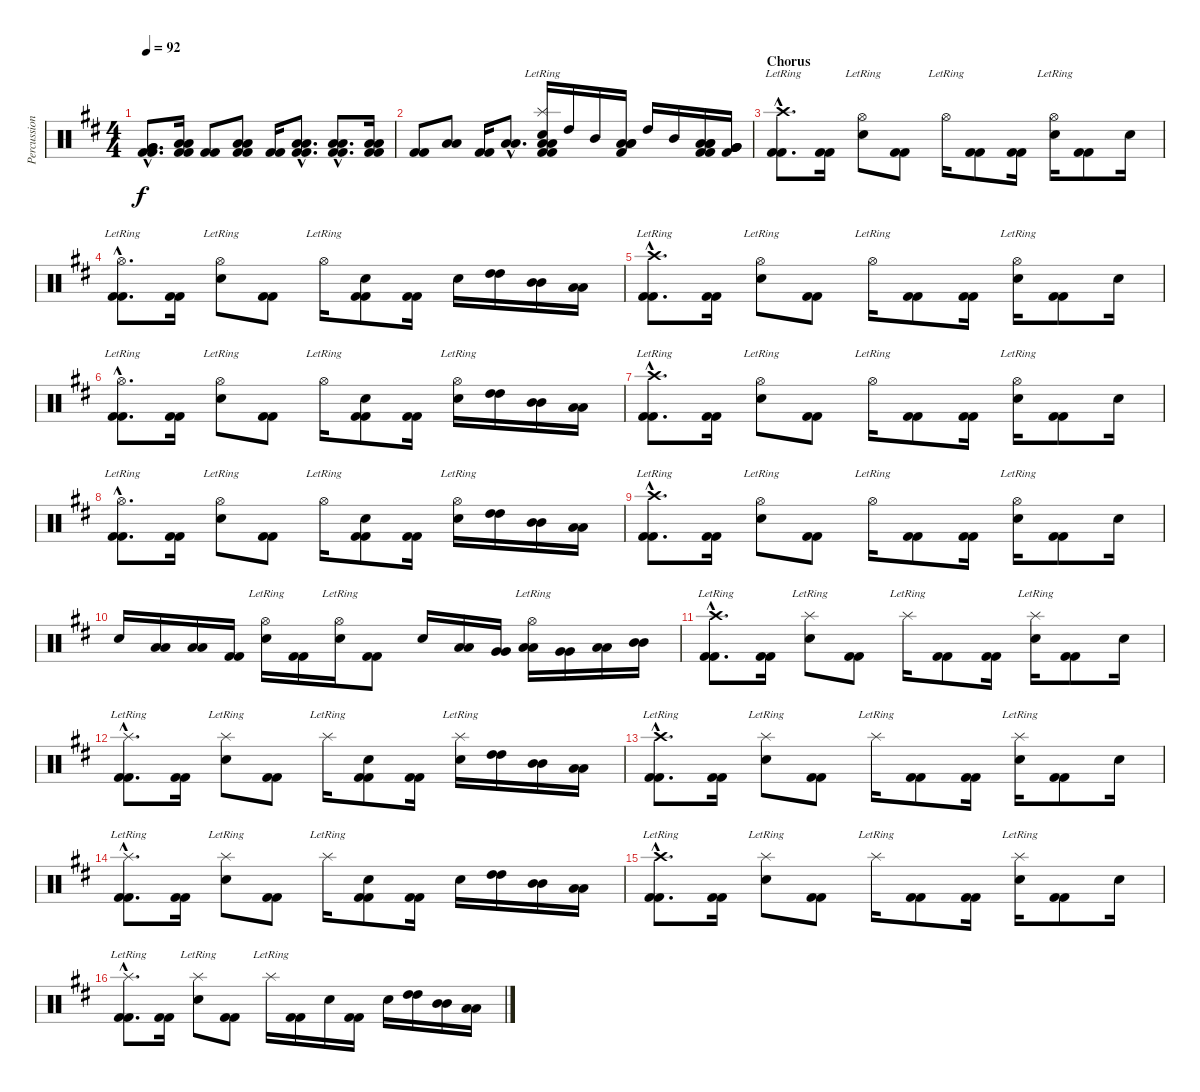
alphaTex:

\track ("Percussion" "Percussion") {instrument percussion}
\staff {score}
\articulation defaults
\ts (4 4)
\tempo 92
\clef neutral
\ks d
("Kick (hit) 2"{hac} "Very Low Tom (hit)"{hac} "Very Low Tom (hit)"{hac} "Kick (hit) 2"{hac}).8{d dy f} ("Kick (hit) 2" "Low Tom (hit)" "Low Tom (hit)" "Kick (hit) 2").16 ("Kick (hit) 2" "Kick (hit) 2").8 ("Kick (hit) 2" "Low Tom (hit)" "Low Tom (hit)" "Kick (hit) 2").8 ("Kick (hit) 2" "Kick (hit) 2").16 ("Kick (hit) 2"{hac} "Low Tom (hit)"{hac} "Low Tom (hit)"{hac} "Kick (hit) 2"{hac}).8{d} ("Kick (hit) 2"{hac} "Low Tom (hit)"{hac} "Low Tom (hit)"{hac} "Kick (hit) 2"{hac}).8{d} ("Kick (hit) 2" "Low Tom (hit)" "Low Tom (hit)" "Kick (hit) 2").16 |
("Kick (hit) 2" "Kick (hit) 2").8 ("Low Tom (hit)" "Low Tom (hit)").8 ("Kick (hit) 2" "Kick (hit) 2").16 ("Low Tom (hit)"{hac} "Low Tom (hit)"{hac}).8{d} ("Kick (hit) 2" "Splash (hit)"{lr} "Snare (hit) 2" "Low Tom (hit)" "Low Tom (hit)" "Kick (hit) 2").16 "High Tom (hit)".16 "Mid Tom (hit)".16 ("Low Tom (hit)" "Low Tom (hit)" "Low Tom (hit)" "Kick (hit) 2").16 "High Tom (hit)".16 "Mid Tom (hit)".16 ("Kick (hit) 2" "Low Tom (hit)" "Low Tom (hit)" "Low Tom (hit)" "Kick (hit) 2").16 ("Very Low Tom (hit)" "Very Low Tom (hit)" "Very Low Tom (hit)" "Kick (hit) 2").16 |
\section ("" "Chorus")
("Crash high (hit)"{hac lr} "Kick (hit) 2"{hac} "Kick (hit) 2"{hac}).8{d} ("Kick (hit) 2" "Kick (hit) 2").16 ("Hi-Hat (open)"{lr} "Snare (hit) 2").8 ("Kick (hit) 2" "Kick (hit) 2").8 "Hi-Hat (open)"{lr}.16 ("Kick (hit) 2" "Kick (hit) 2").8 ("Kick (hit) 2" "Kick (hit) 2").16 ("Hi-Hat (open)"{lr} "Snare (hit) 2").16 ("Kick (hit) 2" "Kick (hit) 2").8 "Snare (hit) 2".16 |
("Hi-Hat (open)"{hac lr} "Kick (hit) 2"{hac} "Kick (hit) 2"{hac}).8{d} ("Kick (hit) 2" "Kick (hit) 2").16 ("Hi-Hat (open)"{lr} "Snare (hit) 2").8 ("Kick (hit) 2" "Kick (hit) 2").8 "Hi-Hat (open)"{lr}.16 ("Snare (hit) 2" "Kick (hit) 2" "Kick (hit) 2").8 ("Kick (hit) 2" "Kick (hit) 2").16 "Snare (hit) 2".16 ("High Tom (hit)" "High Tom (hit)").16 ("Mid Tom (hit)" "Mid Tom (hit)").16 ("Low Tom (hit)" "Low Tom (hit)").16 |
("Crash high (hit)"{hac lr} "Kick (hit) 2"{hac} "Kick (hit) 2"{hac}).8{d} ("Kick (hit) 2" "Kick (hit) 2").16 ("Hi-Hat (open)"{lr} "Snare (hit) 2").8 ("Kick (hit) 2" "Kick (hit) 2").8 "Hi-Hat (open)"{lr}.16 ("Kick (hit) 2" "Kick (hit) 2").8 ("Kick (hit) 2" "Kick (hit) 2").16 ("Hi-Hat (open)"{lr} "Snare (hit) 2").16 ("Kick (hit) 2" "Kick (hit) 2").8 "Snare (hit) 2".16 |
("Hi-Hat (open)"{hac lr} "Kick (hit) 2"{hac} "Kick (hit) 2"{hac}).8{d} ("Kick (hit) 2" "Kick (hit) 2").16 ("Hi-Hat (open)"{lr} "Snare (hit) 2").8 ("Kick (hit) 2" "Kick (hit) 2").8 "Hi-Hat (open)"{lr}.16 ("Snare (hit) 2" "Kick (hit) 2" "Kick (hit) 2").8 ("Kick (hit) 2" "Kick (hit) 2").16 ("Hi-Hat (open)"{lr} "Snare (hit) 2").16 ("High Tom (hit)" "High Tom (hit)").16 ("Mid Tom (hit)" "Mid Tom (hit)").16 ("Low Tom (hit)" "Low Tom (hit)").16 |
("Crash high (hit)"{hac lr} "Kick (hit) 2"{hac} "Kick (hit) 2"{hac}).8{d} ("Kick (hit) 2" "Kick (hit) 2").16 ("Hi-Hat (open)"{lr} "Snare (hit) 2").8 ("Kick (hit) 2" "Kick (hit) 2").8 "Hi-Hat (open)"{lr}.16 ("Kick (hit) 2" "Kick (hit) 2").8 ("Kick (hit) 2" "Kick (hit) 2").16 ("Hi-Hat (open)"{lr} "Snare (hit) 2").16 ("Kick (hit) 2" "Kick (hit) 2").8 "Snare (hit) 2".16 |
("Hi-Hat (open)"{hac lr} "Kick (hit) 2"{hac} "Kick (hit) 2"{hac}).8{d} ("Kick (hit) 2" "Kick (hit) 2").16 ("Hi-Hat (open)"{lr} "Snare (hit) 2").8 ("Kick (hit) 2" "Kick (hit) 2").8 "Hi-Hat (open)"{lr}.16 ("Snare (hit) 2" "Kick (hit) 2" "Kick (hit) 2").8 ("Kick (hit) 2" "Kick (hit) 2").16 ("Hi-Hat (open)"{lr} "Snare (hit) 2").16 ("High Tom (hit)" "High Tom (hit)").16 ("Mid Tom (hit)" "Mid Tom (hit)").16 ("Low Tom (hit)" "Low Tom (hit)").16 |
("Crash high (hit)"{hac lr} "Kick (hit) 2"{hac} "Kick (hit) 2"{hac}).8{d} ("Kick (hit) 2" "Kick (hit) 2").16 ("Hi-Hat (open)"{lr} "Snare (hit) 2").8 ("Kick (hit) 2" "Kick (hit) 2").8 "Hi-Hat (open)"{lr}.16 ("Kick (hit) 2" "Kick (hit) 2").8 ("Kick (hit) 2" "Kick (hit) 2").16 ("Hi-Hat (open)"{lr} "Snare (hit) 2").16 ("Kick (hit) 2" "Kick (hit) 2").8 "Snare (hit) 2".16 |
"Snare (hit) 2".16 ("Low Floor Tom (hit)" "Low Floor Tom (hit)").16 ("Low Tom (hit)" "Low Tom (hit)").16 ("Kick (hit) 2" "Kick (hit) 2").16 ("Hi-Hat (open)"{lr} "Snare (hit) 2").16 ("Kick (hit) 2" "Kick (hit) 2").16 ("Hi-Hat (open)"{lr} "Snare (hit) 2").16 ("Kick (hit) 2" "Kick (hit) 2").8 "Snare (hit) 2".16 ("Low Floor Tom (hit)" "Low Floor Tom (hit)").16 ("Very Low Tom (hit)" "Very Low Tom (hit)").16 ("Hi-Hat (open)"{lr} "Low Floor Tom (hit)" "Low Floor Tom (hit)").16 ("Very Low Tom (hit)" "Very Low Tom (hit)").16 ("Low Tom (hit)" "Low Tom (hit)").16 ("Mid Tom (hit)" "Mid Tom (hit)").16 |
("Crash high (hit)"{hac lr} "Kick (hit) 2"{hac} "Kick (hit) 2"{hac}).8{d} ("Kick (hit) 2" "Kick (hit) 2").16 ("Splash (hit)"{lr} "Snare (hit) 2").8 ("Kick (hit) 2" "Kick (hit) 2").8 "Splash (hit)"{lr}.16 ("Kick (hit) 2" "Kick (hit) 2").8 ("Kick (hit) 2" "Kick (hit) 2").16 ("Splash (hit)"{lr} "Snare (hit) 2").16 ("Kick (hit) 2" "Kick (hit) 2").8 "Snare (hit) 2".16 |
("Splash (hit)"{hac lr} "Kick (hit) 2"{hac} "Kick (hit) 2"{hac}).8{d} ("Kick (hit) 2" "Kick (hit) 2").16 ("Splash (hit)"{lr} "Snare (hit) 2").8 ("Kick (hit) 2" "Kick (hit) 2").8 "Splash (hit)"{lr}.16 ("Snare (hit) 2" "Kick (hit) 2" "Kick (hit) 2").8 ("Kick (hit) 2" "Kick (hit) 2").16 ("Splash (hit)"{lr} "Snare (hit) 2").16 ("High Tom (hit)" "High Tom (hit)").16 ("Mid Tom (hit)" "Mid Tom (hit)").16 ("Low Tom (hit)" "Low Tom (hit)").16 |
("Crash high (hit)"{hac lr} "Kick (hit) 2"{hac} "Kick (hit) 2"{hac}).8{d} ("Kick (hit) 2" "Kick (hit) 2").16 ("Splash (hit)"{lr} "Snare (hit) 2").8 ("Kick (hit) 2" "Kick (hit) 2").8 "Splash (hit)"{lr}.16 ("Kick (hit) 2" "Kick (hit) 2").8 ("Kick (hit) 2" "Kick (hit) 2").16 ("Splash (hit)"{lr} "Snare (hit) 2").16 ("Kick (hit) 2" "Kick (hit) 2").8 "Snare (hit) 2".16 |
("Splash (hit)"{hac lr} "Kick (hit) 2"{hac} "Kick (hit) 2"{hac}).8{d} ("Kick (hit) 2" "Kick (hit) 2").16 ("Splash (hit)"{lr} "Snare (hit) 2").8 ("Kick (hit) 2" "Kick (hit) 2").8 "Splash (hit)"{lr}.16 ("Snare (hit) 2" "Kick (hit) 2" "Kick (hit) 2").8 ("Kick (hit) 2" "Kick (hit) 2").16 "Snare (hit) 2".16 ("High Tom (hit)" "High Tom (hit)").16 ("Mid Tom (hit)" "Mid Tom (hit)").16 ("Low Tom (hit)" "Low Tom (hit)").16 |
("Crash high (hit)"{hac lr} "Kick (hit) 2"{hac} "Kick (hit) 2"{hac}).8{d} ("Kick (hit) 2" "Kick (hit) 2").16 ("Splash (hit)"{lr} "Snare (hit) 2").8 ("Kick (hit) 2" "Kick (hit) 2").8 "Splash (hit)"{lr}.16 ("Kick (hit) 2" "Kick (hit) 2").8 ("Kick (hit) 2" "Kick (hit) 2").16 ("Splash (hit)"{lr} "Snare (hit) 2").16 ("Kick (hit) 2" "Kick (hit) 2").8 "Snare (hit) 2".16 |
("Splash (hit)"{hac lr} "Kick (hit) 2"{hac} "Kick (hit) 2"{hac}).8{d} ("Kick (hit) 2" "Kick (hit) 2").16 ("Splash (hit)"{lr} "Snare (hit) 2").8 ("Kick (hit) 2" "Kick (hit) 2").8 "Splash (hit)"{lr}.16 ("Kick (hit) 2" "Kick (hit) 2").16 "Snare (hit) 2".16 ("Kick (hit) 2" "Kick (hit) 2").16 "Snare (hit) 2".16 ("High Tom (hit)" "High Tom (hit)").16 ("Mid Tom (hit)" "Mid Tom (hit)").16 ("Low Tom (hit)" "Low Tom (hit)").16
